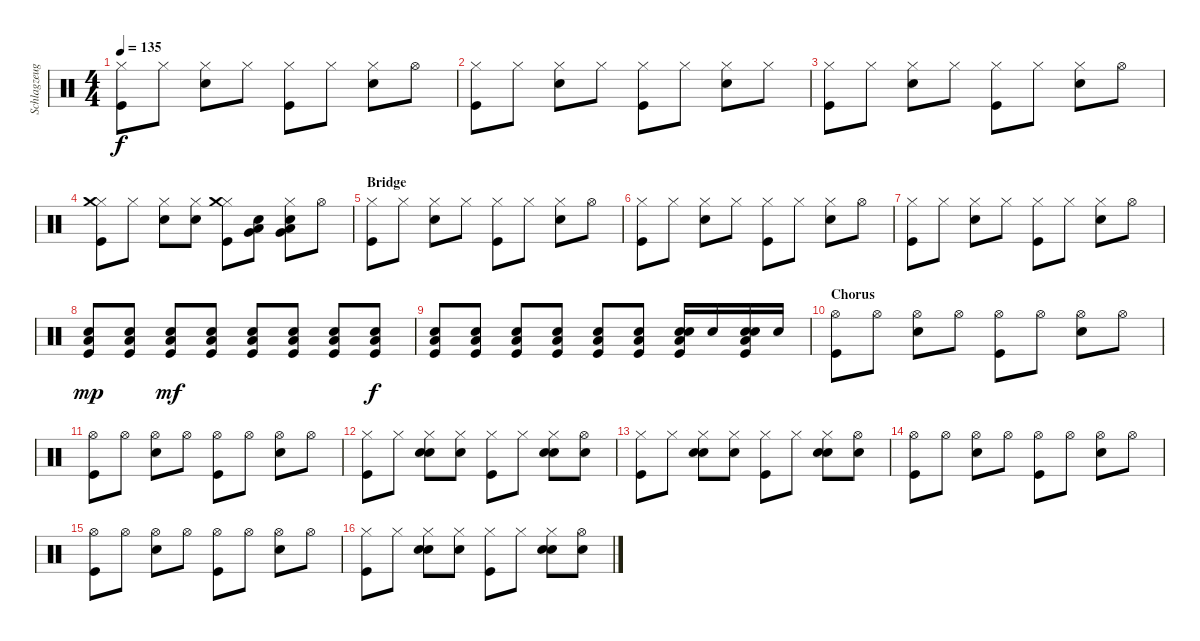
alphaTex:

\track ("Schlagzeug - Bela B." "Schlagzeug") {instrument percussion}
\staff {score}
\articulation defaults
\ts (4 4)
\tempo 135
\clef neutral
\ks c
("Kick (hit)" "Hi-Hat (closed)").8{dy f} "Hi-Hat (closed)".8 ("Electric Snare (hit)" "Hi-Hat (closed)").8 "Hi-Hat (closed)".8 ("Kick (hit)" "Hi-Hat (closed)").8 "Hi-Hat (closed)".8 ("Electric Snare (hit)" "Hi-Hat (closed)").8 "Hi-Hat (open)".8 |
("Kick (hit)" "Hi-Hat (closed)").8 "Hi-Hat (closed)".8 ("Electric Snare (hit)" "Hi-Hat (closed)").8 "Hi-Hat (closed)".8 ("Kick (hit)" "Hi-Hat (closed)").8 "Hi-Hat (closed)".8 ("Electric Snare (hit)" "Hi-Hat (closed)").8 "Hi-Hat (closed)".8 |
("Kick (hit)" "Hi-Hat (closed)").8 "Hi-Hat (closed)".8 ("Electric Snare (hit)" "Hi-Hat (closed)").8 "Hi-Hat (closed)".8 ("Kick (hit)" "Hi-Hat (closed)").8 "Hi-Hat (closed)".8 ("Electric Snare (hit)" "Hi-Hat (closed)").8 "Hi-Hat (open)".8 |
("Kick (hit)" "Hi-Hat (closed)" "Crash medium (hit)").8 "Hi-Hat (closed)".8 ("Electric Snare (hit)" "Hi-Hat (closed)").8 ("Hi-Hat (closed)" "Electric Snare (hit)").8 ("Kick (hit)" "Hi-Hat (closed)" "Crash medium (hit)").8 ("Electric Snare (hit)" "Low Floor Tom (hit)" "Very Low Tom (hit)").8 ("Electric Snare (hit)" "Hi-Hat (closed)" "Low Floor Tom (hit)" "Very Low Tom (hit)").8 "Hi-Hat (open)".8 |
\section ("" "Bridge")
("Kick (hit)" "Hi-Hat (closed)").8 "Hi-Hat (closed)".8 ("Electric Snare (hit)" "Hi-Hat (closed)").8 "Hi-Hat (closed)".8 ("Kick (hit)" "Hi-Hat (closed)").8 "Hi-Hat (closed)".8 ("Electric Snare (hit)" "Hi-Hat (closed)").8 "Hi-Hat (open)".8 |
("Kick (hit)" "Hi-Hat (closed)").8 "Hi-Hat (closed)".8 ("Electric Snare (hit)" "Hi-Hat (closed)").8 "Hi-Hat (closed)".8 ("Kick (hit)" "Hi-Hat (closed)").8 "Hi-Hat (closed)".8 ("Electric Snare (hit)" "Hi-Hat (closed)").8 "Hi-Hat (open)".8 |
("Kick (hit)" "Hi-Hat (closed)").8 "Hi-Hat (closed)".8 ("Electric Snare (hit)" "Hi-Hat (closed)").8 "Hi-Hat (closed)".8 ("Kick (hit)" "Hi-Hat (closed)").8 "Hi-Hat (closed)".8 ("Electric Snare (hit)" "Hi-Hat (closed)").8 "Hi-Hat (open)".8 |
("Kick (hit)" "Snare (hit) 2" "Low Floor Tom (hit)").8{dy mp} ("Kick (hit)" "Snare (hit) 2" "Low Floor Tom (hit)").8 ("Kick (hit)" "Low Floor Tom (hit)" "Snare (hit) 2").8{dy mf} ("Kick (hit)" "Snare (hit) 2" "Low Floor Tom (hit)").8 ("Kick (hit)" "Low Floor Tom (hit)" "Snare (hit) 2").8 ("Kick (hit)" "Low Floor Tom (hit)" "Snare (hit) 2").8 ("Kick (hit)" "Low Floor Tom (hit)" "Snare (hit) 2").8 ("Kick (hit)" "Snare (hit) 2" "Low Floor Tom (hit)").8{dy f} |
("Kick (hit)" "Snare (hit) 2" "Low Floor Tom (hit)").8 ("Kick (hit)" "Snare (hit) 2" "Low Floor Tom (hit)").8 ("Kick (hit)" "Low Floor Tom (hit)" "Snare (hit) 2").8 ("Kick (hit)" "Snare (hit) 2" "Low Floor Tom (hit)").8 ("Kick (hit)" "Low Floor Tom (hit)" "Snare (hit) 2").8 ("Kick (hit)" "Low Floor Tom (hit)" "Snare (hit) 2").8 ("Kick (hit)" "Low Floor Tom (hit)" "Snare (hit) 2" "Electric Snare (hit)").16 "Electric Snare (hit)".16 ("Kick (hit)" "Snare (hit) 2" "Low Floor Tom (hit)" "Electric Snare (hit)").16 "Electric Snare (hit)".16 |
\section ("" "Chorus")
("Kick (hit)" "Hi-Hat (open)").8 "Hi-Hat (open)".8 ("Electric Snare (hit)" "Hi-Hat (open)").8 "Hi-Hat (open)".8 ("Kick (hit)" "Hi-Hat (open)").8 "Hi-Hat (open)".8 ("Electric Snare (hit)" "Hi-Hat (open)").8 "Hi-Hat (open)".8 |
("Kick (hit)" "Hi-Hat (open)").8 "Hi-Hat (open)".8 ("Electric Snare (hit)" "Hi-Hat (open)").8 "Hi-Hat (open)".8 ("Kick (hit)" "Hi-Hat (open)").8 "Hi-Hat (open)".8 ("Electric Snare (hit)" "Hi-Hat (open)").8 "Hi-Hat (open)".8 |
("Kick (hit)" "Hi-Hat (closed)").8 "Hi-Hat (closed)".8 ("Hand Clap (hit)" "Hi-Hat (closed)" "Electric Snare (hit)").8 ("Hi-Hat (closed)" "Hand Clap (hit)").8 ("Kick (hit)" "Hi-Hat (closed)").8 "Hi-Hat (closed)".8 ("Hand Clap (hit)" "Hi-Hat (closed)" "Electric Snare (hit)").8 ("Hi-Hat (open)" "Hand Clap (hit)").8 |
("Kick (hit)" "Hi-Hat (closed)").8 "Hi-Hat (closed)".8 ("Electric Snare (hit)" "Hi-Hat (closed)" "Hand Clap (hit)").8 ("Hi-Hat (closed)" "Hand Clap (hit)").8 ("Kick (hit)" "Hi-Hat (closed)").8 "Hi-Hat (closed)".8 ("Electric Snare (hit)" "Hi-Hat (closed)" "Hand Clap (hit)").8 ("Hi-Hat (open)" "Hand Clap (hit)").8 |
("Kick (hit)" "Hi-Hat (open)").8 "Hi-Hat (open)".8 ("Electric Snare (hit)" "Hi-Hat (open)").8 "Hi-Hat (open)".8 ("Kick (hit)" "Hi-Hat (open)").8 "Hi-Hat (open)".8 ("Electric Snare (hit)" "Hi-Hat (open)").8 "Hi-Hat (open)".8 |
("Kick (hit)" "Hi-Hat (open)").8 "Hi-Hat (open)".8 ("Electric Snare (hit)" "Hi-Hat (open)").8 "Hi-Hat (open)".8 ("Kick (hit)" "Hi-Hat (open)").8 "Hi-Hat (open)".8 ("Electric Snare (hit)" "Hi-Hat (open)").8 "Hi-Hat (open)".8 |
("Kick (hit)" "Hi-Hat (closed)").8 "Hi-Hat (closed)".8 ("Hand Clap (hit)" "Hi-Hat (closed)" "Electric Snare (hit)").8 ("Hi-Hat (closed)" "Hand Clap (hit)").8 ("Kick (hit)" "Hi-Hat (closed)").8 "Hi-Hat (closed)".8 ("Hand Clap (hit)" "Hi-Hat (closed)" "Electric Snare (hit)").8 ("Hi-Hat (open)" "Hand Clap (hit)").8
